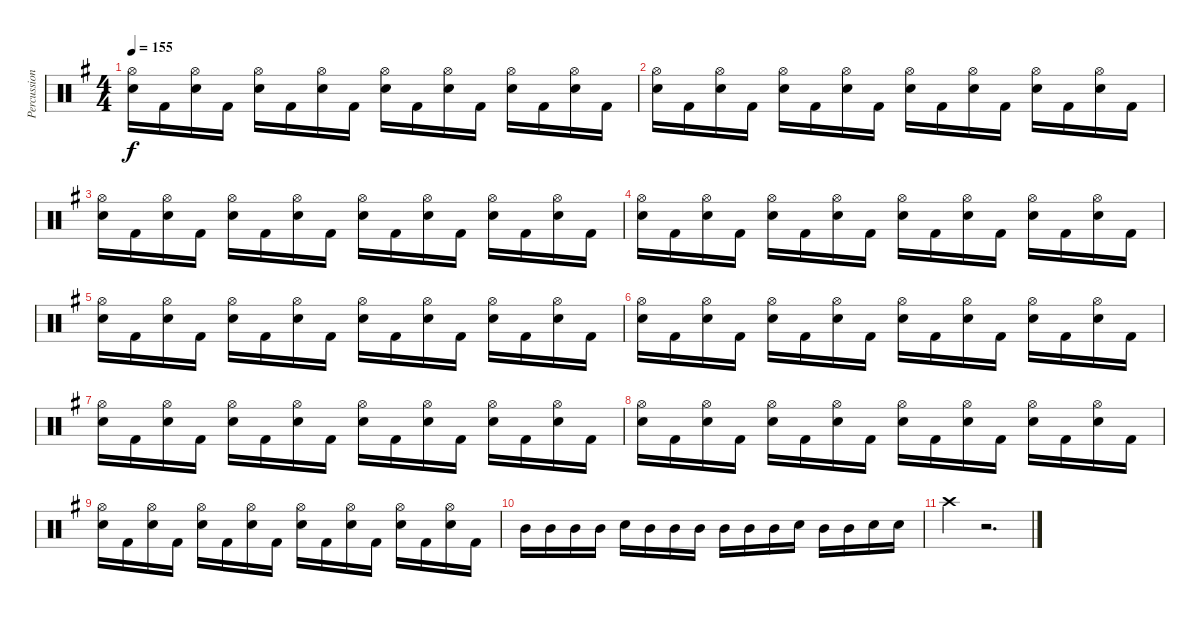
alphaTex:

\track ("Percussion" "Percussion") {instrument percussion}
\staff {score}
\articulation defaults
\ts (4 4)
\tempo 155
\clef neutral
\ks eminor
("Hi-Hat (open)" "Electric Snare (hit)").16{dy f} "Kick (hit) 2".16 ("Hi-Hat (open)" "Electric Snare (hit)").16 "Kick (hit) 2".16 ("Hi-Hat (open)" "Electric Snare (hit)").16 "Kick (hit) 2".16 ("Hi-Hat (open)" "Electric Snare (hit)").16 "Kick (hit) 2".16 ("Hi-Hat (open)" "Electric Snare (hit)").16 "Kick (hit) 2".16 ("Hi-Hat (open)" "Electric Snare (hit)").16 "Kick (hit) 2".16 ("Hi-Hat (open)" "Electric Snare (hit)").16 "Kick (hit) 2".16 ("Hi-Hat (open)" "Electric Snare (hit)").16 "Kick (hit) 2".16 |
("Hi-Hat (open)" "Electric Snare (hit)").16 "Kick (hit) 2".16 ("Hi-Hat (open)" "Electric Snare (hit)").16 "Kick (hit) 2".16 ("Hi-Hat (open)" "Electric Snare (hit)").16 "Kick (hit) 2".16 ("Hi-Hat (open)" "Electric Snare (hit)").16 "Kick (hit) 2".16 ("Hi-Hat (open)" "Electric Snare (hit)").16 "Kick (hit) 2".16 ("Hi-Hat (open)" "Electric Snare (hit)").16 "Kick (hit) 2".16 ("Hi-Hat (open)" "Electric Snare (hit)").16 "Kick (hit) 2".16 ("Hi-Hat (open)" "Electric Snare (hit)").16 "Kick (hit) 2".16 |
("Hi-Hat (open)" "Electric Snare (hit)").16 "Kick (hit) 2".16 ("Hi-Hat (open)" "Electric Snare (hit)").16 "Kick (hit) 2".16 ("Hi-Hat (open)" "Electric Snare (hit)").16 "Kick (hit) 2".16 ("Hi-Hat (open)" "Electric Snare (hit)").16 "Kick (hit) 2".16 ("Hi-Hat (open)" "Electric Snare (hit)").16 "Kick (hit) 2".16 ("Hi-Hat (open)" "Electric Snare (hit)").16 "Kick (hit) 2".16 ("Hi-Hat (open)" "Electric Snare (hit)").16 "Kick (hit) 2".16 ("Hi-Hat (open)" "Electric Snare (hit)").16 "Kick (hit) 2".16 |
("Hi-Hat (open)" "Electric Snare (hit)").16 "Kick (hit) 2".16 ("Hi-Hat (open)" "Electric Snare (hit)").16 "Kick (hit) 2".16 ("Hi-Hat (open)" "Electric Snare (hit)").16 "Kick (hit) 2".16 ("Hi-Hat (open)" "Electric Snare (hit)").16 "Kick (hit) 2".16 ("Hi-Hat (open)" "Electric Snare (hit)").16 "Kick (hit) 2".16 ("Hi-Hat (open)" "Electric Snare (hit)").16 "Kick (hit) 2".16 ("Hi-Hat (open)" "Electric Snare (hit)").16 "Kick (hit) 2".16 ("Hi-Hat (open)" "Electric Snare (hit)").16 "Kick (hit) 2".16 |
("Hi-Hat (open)" "Electric Snare (hit)").16 "Kick (hit) 2".16 ("Hi-Hat (open)" "Electric Snare (hit)").16 "Kick (hit) 2".16 ("Hi-Hat (open)" "Electric Snare (hit)").16 "Kick (hit) 2".16 ("Hi-Hat (open)" "Electric Snare (hit)").16 "Kick (hit) 2".16 ("Hi-Hat (open)" "Electric Snare (hit)").16 "Kick (hit) 2".16 ("Hi-Hat (open)" "Electric Snare (hit)").16 "Kick (hit) 2".16 ("Hi-Hat (open)" "Electric Snare (hit)").16 "Kick (hit) 2".16 ("Hi-Hat (open)" "Electric Snare (hit)").16 "Kick (hit) 2".16 |
("Hi-Hat (open)" "Electric Snare (hit)").16 "Kick (hit) 2".16 ("Hi-Hat (open)" "Electric Snare (hit)").16 "Kick (hit) 2".16 ("Hi-Hat (open)" "Electric Snare (hit)").16 "Kick (hit) 2".16 ("Hi-Hat (open)" "Electric Snare (hit)").16 "Kick (hit) 2".16 ("Hi-Hat (open)" "Electric Snare (hit)").16 "Kick (hit) 2".16 ("Hi-Hat (open)" "Electric Snare (hit)").16 "Kick (hit) 2".16 ("Hi-Hat (open)" "Electric Snare (hit)").16 "Kick (hit) 2".16 ("Hi-Hat (open)" "Electric Snare (hit)").16 "Kick (hit) 2".16 |
("Hi-Hat (open)" "Electric Snare (hit)").16 "Kick (hit) 2".16 ("Hi-Hat (open)" "Electric Snare (hit)").16 "Kick (hit) 2".16 ("Hi-Hat (open)" "Electric Snare (hit)").16 "Kick (hit) 2".16 ("Hi-Hat (open)" "Electric Snare (hit)").16 "Kick (hit) 2".16 ("Hi-Hat (open)" "Electric Snare (hit)").16 "Kick (hit) 2".16 ("Hi-Hat (open)" "Electric Snare (hit)").16 "Kick (hit) 2".16 ("Hi-Hat (open)" "Electric Snare (hit)").16 "Kick (hit) 2".16 ("Hi-Hat (open)" "Electric Snare (hit)").16 "Kick (hit) 2".16 |
("Hi-Hat (open)" "Electric Snare (hit)").16 "Kick (hit) 2".16 ("Hi-Hat (open)" "Electric Snare (hit)").16 "Kick (hit) 2".16 ("Hi-Hat (open)" "Electric Snare (hit)").16 "Kick (hit) 2".16 ("Hi-Hat (open)" "Electric Snare (hit)").16 "Kick (hit) 2".16 ("Hi-Hat (open)" "Electric Snare (hit)").16 "Kick (hit) 2".16 ("Hi-Hat (open)" "Electric Snare (hit)").16 "Kick (hit) 2".16 ("Hi-Hat (open)" "Electric Snare (hit)").16 "Kick (hit) 2".16 ("Hi-Hat (open)" "Electric Snare (hit)").16 "Kick (hit) 2".16 |
("Hi-Hat (open)" "Electric Snare (hit)").16 "Kick (hit) 2".16 ("Hi-Hat (open)" "Electric Snare (hit)").16 "Kick (hit) 2".16 ("Hi-Hat (open)" "Electric Snare (hit)").16 "Kick (hit) 2".16 ("Hi-Hat (open)" "Electric Snare (hit)").16 "Kick (hit) 2".16 ("Hi-Hat (open)" "Electric Snare (hit)").16 "Kick (hit) 2".16 ("Hi-Hat (open)" "Electric Snare (hit)").16 "Kick (hit) 2".16 ("Hi-Hat (open)" "Electric Snare (hit)").16 "Kick (hit) 2".16 ("Hi-Hat (open)" "Electric Snare (hit)").16 "Kick (hit) 2".16 |
"Mid Tom (hit)".16 "Mid Tom (hit)".16 "Mid Tom (hit)".16 "Mid Tom (hit)".16 "Electric Snare (hit)".16 "Mid Tom (hit)".16 "Mid Tom (hit)".16 "Mid Tom (hit)".16 "Mid Tom (hit)".16 "Mid Tom (hit)".16 "Mid Tom (hit)".16 "Electric Snare (hit)".16 "Mid Tom (hit)".16 "Mid Tom (hit)".16 "Electric Snare (hit)".16 "Electric Snare (hit)".16 |
"Crash high (hit)".4 r.2{d}
